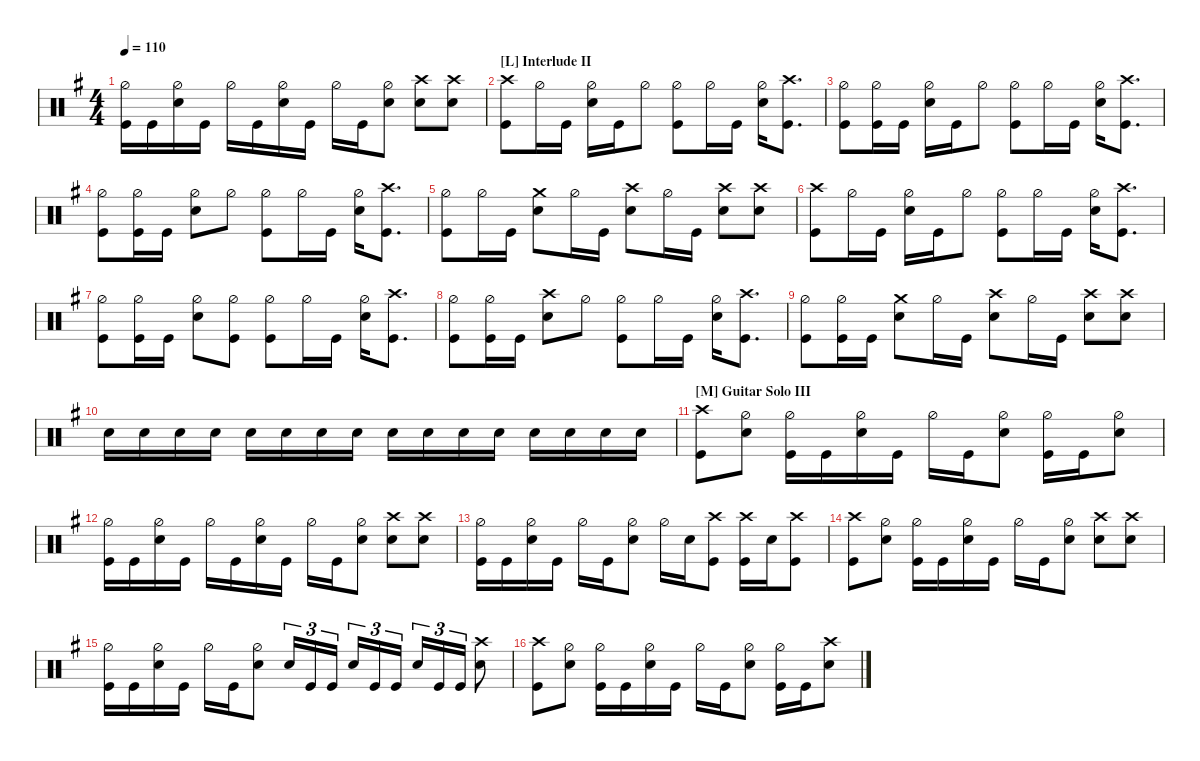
\defaultSystemsLayout 4
\hideDynamics
\bracketExtendMode nobrackets
\track ("Drums" " ") {instrument percussion}
\staff
\articulation defaults
\ts (4 4)
\tempo 110
\clef neutral
\ks eminor
("Hi-Hat (half)"{acc forcenatural} "Kick (hit)"{acc forcenatural}).16{dy f} "Kick (hit)"{acc forcenatural}.16 ("Hi-Hat (half)"{acc forcenatural} "Snare (hit) 2"{acc forcenatural}).16 "Kick (hit)"{acc forcenatural}.16 "Hi-Hat (half)"{acc forcenatural}.16 "Kick (hit)"{acc forcenatural}.16 ("Hi-Hat (half)"{acc forcenatural} "Snare (hit) 2"{acc forcenatural}).16 "Kick (hit)"{acc forcenatural}.16 "Hi-Hat (half)"{acc forcenatural}.16 "Kick (hit)"{acc forcenatural}.16 ("Hi-Hat (half)"{acc forcenatural} "Snare (hit) 2"{acc forcenatural}).8 ("Snare (hit) 2"{acc forcenatural} "Crash high (hit)"{acc forcenatural}).8 ("Snare (hit) 2"{acc forcenatural} "Crash high (hit)"{acc forcenatural}).8 |
\section ("L" "Interlude II")
("Crash high (hit)"{acc forcenatural} "Kick (hit)"{acc forcenatural}).8 "Hi-Hat (half)"{acc forcenatural}.16 "Kick (hit)"{acc forcenatural}.16 ("Hi-Hat (half)"{acc forcenatural} "Snare (hit) 2"{acc forcenatural}).16 "Kick (hit)"{acc forcenatural}.16 "Hi-Hat (half)"{acc forcenatural}.8 ("Kick (hit)"{acc forcenatural} "Hi-Hat (half)"{acc forcenatural}).8 "Hi-Hat (half)"{acc forcenatural}.16 "Kick (hit)"{acc forcenatural}.16 ("Hi-Hat (half)"{acc forcenatural} "Snare (hit) 2"{acc forcenatural}).16 ("Kick (hit)"{acc forcenatural} "Crash high (hit)"{acc forcenatural}).8{d} |
("Kick (hit)"{acc forcenatural} "Hi-Hat (half)"{acc forcenatural}).8 ("Hi-Hat (half)"{acc forcenatural} "Kick (hit)"{acc forcenatural}).16 "Kick (hit)"{acc forcenatural}.16 ("Hi-Hat (half)"{acc forcenatural} "Snare (hit) 2"{acc forcenatural}).16 "Kick (hit)"{acc forcenatural}.16 "Hi-Hat (half)"{acc forcenatural}.8 ("Kick (hit)"{acc forcenatural} "Hi-Hat (half)"{acc forcenatural}).8 "Hi-Hat (half)"{acc forcenatural}.16 "Kick (hit)"{acc forcenatural}.16 ("Hi-Hat (half)"{acc forcenatural} "Snare (hit) 2"{acc forcenatural}).16 ("Kick (hit)"{acc forcenatural} "Crash high (hit)"{acc forcenatural}).8{d} |
("Kick (hit)"{acc forcenatural} "Hi-Hat (half)"{acc forcenatural}).8 ("Hi-Hat (half)"{acc forcenatural} "Kick (hit)"{acc forcenatural}).16 "Kick (hit)"{acc forcenatural}.16 ("Hi-Hat (half)"{acc forcenatural} "Snare (hit) 2"{acc forcenatural}).8 "Hi-Hat (half)"{acc forcenatural}.8 ("Kick (hit)"{acc forcenatural} "Hi-Hat (half)"{acc forcenatural}).8 "Hi-Hat (half)"{acc forcenatural}.16 "Kick (hit)"{acc forcenatural}.16 ("Hi-Hat (half)"{acc forcenatural} "Snare (hit) 2"{acc forcenatural}).16 ("Kick (hit)"{acc forcenatural} "Crash high (hit)"{acc forcenatural}).8{d} |
("Kick (hit)"{acc forcenatural} "Hi-Hat (half)"{acc forcenatural}).8 "Hi-Hat (half)"{acc forcenatural}.16 "Kick (hit)"{acc forcenatural}.16 ("Snare (hit) 2"{acc forcenatural} "Crash medium (hit)"{acc forcenatural}).8 "Hi-Hat (half)"{acc forcenatural}.16 "Kick (hit)"{acc forcenatural}.16 ("Snare (hit) 2"{acc forcenatural} "Crash high (hit)"{acc forcenatural}).8 "Hi-Hat (half)"{acc forcenatural}.16 "Kick (hit)"{acc forcenatural}.16 ("Snare (hit) 2"{acc forcenatural} "Crash high (hit)"{acc forcenatural}).8 ("Snare (hit) 2"{acc forcenatural} "Crash high (hit)"{acc forcenatural}).8 |
("Crash high (hit)"{acc forcenatural} "Kick (hit)"{acc forcenatural}).8 "Hi-Hat (half)"{acc forcenatural}.16 "Kick (hit)"{acc forcenatural}.16 ("Hi-Hat (half)"{acc forcenatural} "Snare (hit) 2"{acc forcenatural}).16 "Kick (hit)"{acc forcenatural}.16 "Hi-Hat (half)"{acc forcenatural}.8 ("Kick (hit)"{acc forcenatural} "Hi-Hat (half)"{acc forcenatural}).8 "Hi-Hat (half)"{acc forcenatural}.16 "Kick (hit)"{acc forcenatural}.16 ("Hi-Hat (half)"{acc forcenatural} "Snare (hit) 2"{acc forcenatural}).16 ("Kick (hit)"{acc forcenatural} "Crash high (hit)"{acc forcenatural}).8{d} |
("Kick (hit)"{acc forcenatural} "Hi-Hat (half)"{acc forcenatural}).8 ("Hi-Hat (half)"{acc forcenatural} "Kick (hit)"{acc forcenatural}).16 "Kick (hit)"{acc forcenatural}.16 ("Hi-Hat (half)"{acc forcenatural} "Snare (hit) 2"{acc forcenatural}).8 ("Hi-Hat (half)"{acc forcenatural} "Kick (hit)"{acc forcenatural}).8 ("Kick (hit)"{acc forcenatural} "Hi-Hat (half)"{acc forcenatural}).8 "Hi-Hat (half)"{acc forcenatural}.16 "Kick (hit)"{acc forcenatural}.16 ("Hi-Hat (half)"{acc forcenatural} "Snare (hit) 2"{acc forcenatural}).16 ("Kick (hit)"{acc forcenatural} "Crash high (hit)"{acc forcenatural}).8{d} |
("Kick (hit)"{acc forcenatural} "Hi-Hat (half)"{acc forcenatural}).8 ("Hi-Hat (half)"{acc forcenatural} "Kick (hit)"{acc forcenatural}).16 "Kick (hit)"{acc forcenatural}.16 ("Snare (hit) 2"{acc forcenatural} "Crash high (hit)"{acc forcenatural}).8 "Hi-Hat (half)"{acc forcenatural}.8 ("Kick (hit)"{acc forcenatural} "Hi-Hat (half)"{acc forcenatural}).8 "Hi-Hat (half)"{acc forcenatural}.16 "Kick (hit)"{acc forcenatural}.16 ("Hi-Hat (half)"{acc forcenatural} "Snare (hit) 2"{acc forcenatural}).16 ("Kick (hit)"{acc forcenatural} "Crash high (hit)"{acc forcenatural}).8{d} |
("Kick (hit)"{acc forcenatural} "Hi-Hat (half)"{acc forcenatural}).8 ("Hi-Hat (half)"{acc forcenatural} "Kick (hit)"{acc forcenatural}).16 "Kick (hit)"{acc forcenatural}.16 ("Snare (hit) 2"{acc forcenatural} "Crash medium (hit)"{acc forcenatural}).8 "Hi-Hat (half)"{acc forcenatural}.16 "Kick (hit)"{acc forcenatural}.16 ("Snare (hit) 2"{acc forcenatural} "Crash high (hit)"{acc forcenatural}).8 "Hi-Hat (half)"{acc forcenatural}.16 "Kick (hit)"{acc forcenatural}.16 ("Snare (hit) 2"{acc forcenatural} "Crash high (hit)"{acc forcenatural}).8 ("Snare (hit) 2"{acc forcenatural} "Crash high (hit)"{acc forcenatural}).8 |
"Snare (hit) 2"{acc forcenatural}.16 "Snare (hit) 2"{acc forcenatural}.16 "Snare (hit) 2"{acc forcenatural}.16 "Snare (hit) 2"{acc forcenatural}.16 "Snare (hit) 2"{acc forcenatural}.16 "Snare (hit) 2"{acc forcenatural}.16 "Snare (hit) 2"{acc forcenatural}.16 "Snare (hit) 2"{acc forcenatural}.16 "Snare (hit) 2"{acc forcenatural}.16 "Snare (hit) 2"{acc forcenatural}.16 "Snare (hit) 2"{acc forcenatural}.16 "Snare (hit) 2"{acc forcenatural}.16 "Snare (hit) 2"{acc forcenatural}.16 "Snare (hit) 2"{acc forcenatural}.16 "Snare (hit) 2"{acc forcenatural}.16 "Snare (hit) 2"{acc forcenatural}.16 |
\section ("M" "Guitar Solo III")
("Kick (hit)"{acc forcenatural} "Crash high (hit)"{acc forcenatural}).8 ("Hi-Hat (half)"{acc forcenatural} "Snare (hit) 2"{acc forcenatural}).8 ("Hi-Hat (half)"{acc forcenatural} "Kick (hit)"{acc forcenatural}).16 "Kick (hit)"{acc forcenatural}.16 ("Hi-Hat (half)"{acc forcenatural} "Snare (hit) 2"{acc forcenatural}).16 "Kick (hit)"{acc forcenatural}.16 "Hi-Hat (half)"{acc forcenatural}.16 "Kick (hit)"{acc forcenatural}.16 ("Hi-Hat (half)"{acc forcenatural} "Snare (hit) 2"{acc forcenatural}).8 ("Hi-Hat (half)"{acc forcenatural} "Kick (hit)"{acc forcenatural}).16 "Kick (hit)"{acc forcenatural}.16 ("Hi-Hat (half)"{acc forcenatural} "Snare (hit) 2"{acc forcenatural}).8 |
("Hi-Hat (half)"{acc forcenatural} "Kick (hit)"{acc forcenatural}).16 "Kick (hit)"{acc forcenatural}.16 ("Hi-Hat (half)"{acc forcenatural} "Snare (hit) 2"{acc forcenatural}).16 "Kick (hit)"{acc forcenatural}.16 "Hi-Hat (half)"{acc forcenatural}.16 "Kick (hit)"{acc forcenatural}.16 ("Hi-Hat (half)"{acc forcenatural} "Snare (hit) 2"{acc forcenatural}).16 "Kick (hit)"{acc forcenatural}.16 "Hi-Hat (half)"{acc forcenatural}.16 "Kick (hit)"{acc forcenatural}.16 ("Hi-Hat (half)"{acc forcenatural} "Snare (hit) 2"{acc forcenatural}).8 ("Snare (hit) 2"{acc forcenatural} "Crash high (hit)"{acc forcenatural}).8 ("Snare (hit) 2"{acc forcenatural} "Crash high (hit)"{acc forcenatural}).8 |
("Hi-Hat (half)"{acc forcenatural} "Kick (hit)"{acc forcenatural}).16 "Kick (hit)"{acc forcenatural}.16 ("Hi-Hat (half)"{acc forcenatural} "Snare (hit) 2"{acc forcenatural}).16 "Kick (hit)"{acc forcenatural}.16 "Hi-Hat (half)"{acc forcenatural}.16 "Kick (hit)"{acc forcenatural}.16 ("Hi-Hat (half)"{acc forcenatural} "Snare (hit) 2"{acc forcenatural}).8 "Hi-Hat (half)"{acc forcenatural}.16 "Snare (hit) 2"{acc forcenatural}.16 ("Crash high (hit)"{acc forcenatural} "Kick (hit)"{acc forcenatural}).8 ("Crash high (hit)"{acc forcenatural} "Kick (hit)"{acc forcenatural}).16 "Snare (hit) 2"{acc forcenatural}.16 ("Crash high (hit)"{acc forcenatural} "Kick (hit)"{acc forcenatural}).8 |
("Kick (hit)"{acc forcenatural} "Crash high (hit)"{acc forcenatural}).8 ("Hi-Hat (half)"{acc forcenatural} "Snare (hit) 2"{acc forcenatural}).8 ("Hi-Hat (half)"{acc forcenatural} "Kick (hit)"{acc forcenatural}).16 "Kick (hit)"{acc forcenatural}.16 ("Hi-Hat (half)"{acc forcenatural} "Snare (hit) 2"{acc forcenatural}).16 "Kick (hit)"{acc forcenatural}.16 "Hi-Hat (half)"{acc forcenatural}.16 "Kick (hit)"{acc forcenatural}.16 ("Hi-Hat (half)"{acc forcenatural} "Snare (hit) 2"{acc forcenatural}).8 ("Snare (hit) 2"{acc forcenatural} "Crash high (hit)"{acc forcenatural}).8 ("Snare (hit) 2"{acc forcenatural} "Crash high (hit)"{acc forcenatural}).8 |
("Hi-Hat (half)"{acc forcenatural} "Kick (hit)"{acc forcenatural}).16 "Kick (hit)"{acc forcenatural}.16 ("Hi-Hat (half)"{acc forcenatural} "Snare (hit) 2"{acc forcenatural}).16 "Kick (hit)"{acc forcenatural}.16 "Hi-Hat (half)"{acc forcenatural}.16 "Kick (hit)"{acc forcenatural}.16 ("Hi-Hat (half)"{acc forcenatural} "Snare (hit) 2"{acc forcenatural}).8 "Snare (hit) 2"{acc forcenatural}.16{tu (3 2)} "Kick (hit)"{acc forcenatural}.16{tu (3 2)} "Kick (hit)"{acc forcenatural}.16{tu (3 2)} "Snare (hit) 2"{acc forcenatural}.16{tu (3 2)} "Kick (hit)"{acc forcenatural}.16{tu (3 2)} "Kick (hit)"{acc forcenatural}.16{tu (3 2)} "Snare (hit) 2"{acc forcenatural}.16{tu (3 2)} "Kick (hit)"{acc forcenatural}.16{tu (3 2)} "Kick (hit)"{acc forcenatural}.16{tu (3 2)} ("Snare (hit) 2"{acc forcenatural} "Crash high (hit)"{acc forcenatural}).8 |
("Kick (hit)"{acc forcenatural} "Crash high (hit)"{acc forcenatural}).8 ("Hi-Hat (half)"{acc forcenatural} "Snare (hit) 2"{acc forcenatural}).8 ("Hi-Hat (half)"{acc forcenatural} "Kick (hit)"{acc forcenatural}).16 "Kick (hit)"{acc forcenatural}.16 ("Hi-Hat (half)"{acc forcenatural} "Snare (hit) 2"{acc forcenatural}).16 "Kick (hit)"{acc forcenatural}.16 "Hi-Hat (half)"{acc forcenatural}.16 "Kick (hit)"{acc forcenatural}.16 ("Hi-Hat (half)"{acc forcenatural} "Snare (hit) 2"{acc forcenatural}).8 ("Kick (hit)"{acc forcenatural} "Hi-Hat (half)"{acc forcenatural}).16 "Kick (hit)"{acc forcenatural}.16 ("Snare (hit) 2"{acc forcenatural} "Crash high (hit)"{acc forcenatural}).8
